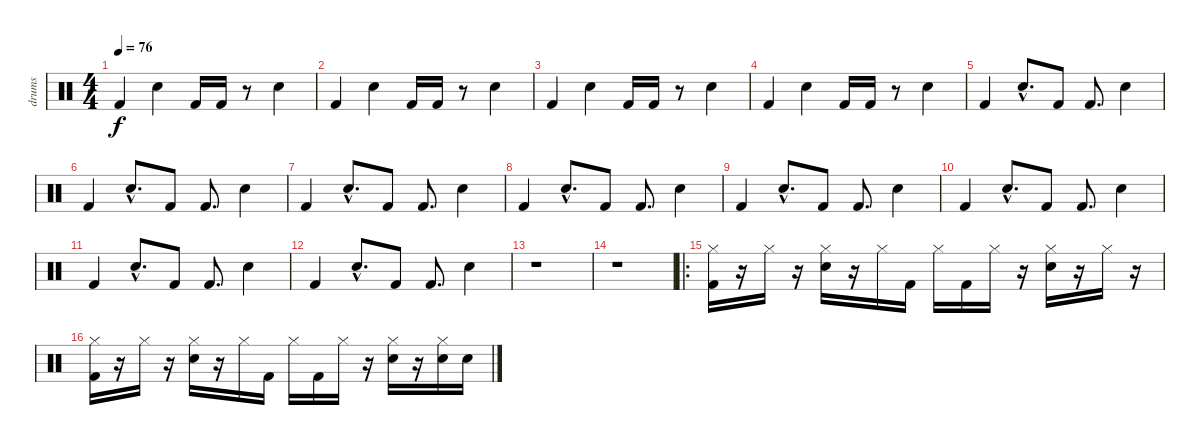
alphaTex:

\track ("drums" "drums") {instrument percussion}
\staff {score}
\articulation defaults
\ts (4 4)
\tempo 76
\clef neutral
\ks c "Kick (hit) 2".4{dy f} "Snare (hit) 2".4 "Kick (hit) 2".16 "Kick (hit) 2".16
r.8 "Snare (hit) 2".4 |
"Kick (hit) 2".4 "Snare (hit) 2".4 "Kick (hit) 2".16 "Kick (hit) 2".16 r.8 "Snare (hit) 2".4 |
"Kick (hit) 2".4 "Snare (hit) 2".4 "Kick (hit) 2".16 "Kick (hit) 2".16 r.8 "Snare (hit) 2".4 |
"Kick (hit) 2".4 "Snare (hit) 2".4 "Kick (hit) 2".16 "Kick (hit) 2".16 r.8 "Snare (hit) 2".4 |
"Kick (hit) 2".4 "Snare (hit) 2"{hac}.8{d} "Kick (hit) 2".8 "Kick (hit) 2".8{d} "Snare (hit) 2".4 |
"Kick (hit) 2".4 "Snare (hit) 2"{hac}.8{d} "Kick (hit) 2".8 "Kick (hit) 2".8{d} "Snare (hit) 2".4 |
"Kick (hit) 2".4 "Snare (hit) 2"{hac}.8{d} "Kick (hit) 2".8 "Kick (hit) 2".8{d} "Snare (hit) 2".4 |
"Kick (hit) 2".4 "Snare (hit) 2"{hac}.8{d} "Kick (hit) 2".8 "Kick (hit) 2".8{d} "Snare (hit) 2".4 |
"Kick (hit) 2".4 "Snare (hit) 2"{hac}.8{d} "Kick (hit) 2".8 "Kick (hit) 2".8{d} "Snare (hit) 2".4 |
"Kick (hit) 2".4 "Snare (hit) 2"{hac}.8{d} "Kick (hit) 2".8 "Kick (hit) 2".8{d} "Snare (hit) 2".4 |
"Kick (hit) 2".4 "Snare (hit) 2"{hac}.8{d} "Kick (hit) 2".8 "Kick (hit) 2".8{d} "Snare (hit) 2".4 |
"Kick (hit) 2".4 "Snare (hit) 2"{hac}.8{d} "Kick (hit) 2".8 "Kick (hit) 2".8{d} "Snare (hit) 2".4 |
r.1 |
r.1 |
\ro
("Kick (hit) 2" "Hi-Hat (closed)").16 r.16 "Hi-Hat (closed)".16 r.16 ("Snare (hit) 2" "Hi-Hat (closed)").16 r.16 "Hi-Hat (closed)".16 "Kick (hit) 2".16 "Hi-Hat (closed)".16 "Kick (hit) 2".16 "Hi-Hat (closed)".16 r.16 ("Snare (hit) 2" "Hi-Hat (closed)").16 r.16 "Hi-Hat (closed)".16 r.16 |
("Kick (hit) 2" "Hi-Hat (closed)").16 r.16 "Hi-Hat (closed)".16 r.16 ("Snare (hit) 2" "Hi-Hat (closed)").16 r.16 "Hi-Hat (closed)".16 "Kick (hit) 2".16 "Hi-Hat (closed)".16 "Kick (hit) 2".16 "Hi-Hat (closed)".16 r.16 ("Snare (hit) 2" "Hi-Hat (closed)").16 r.16 ("Snare (hit) 2" "Hi-Hat (closed)").16 "Snare (hit) 2".16
